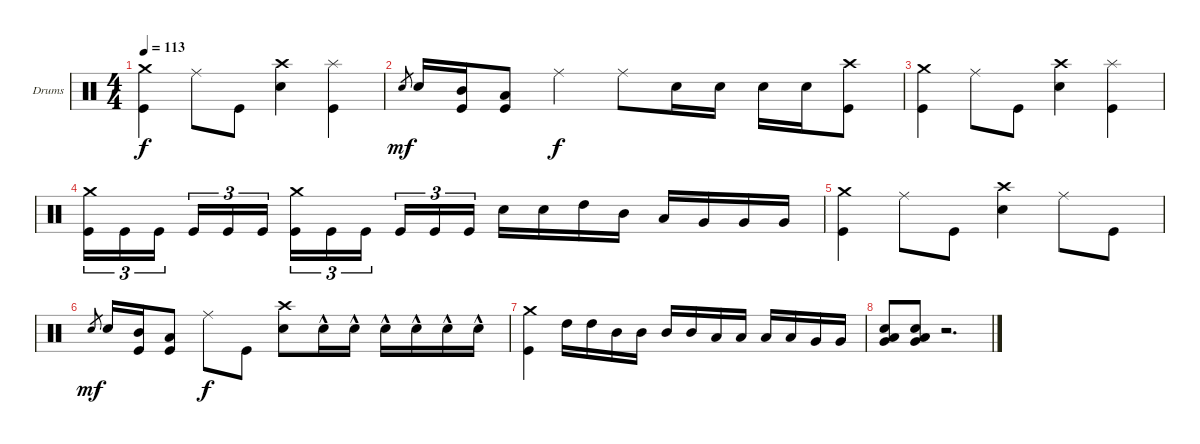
\defaultSystemsLayout 4
\bracketExtendMode groupsimilarinstruments
\firstSystemTrackNameOrientation horizontal
\otherSystemsTrackNameOrientation horizontal
\track ("Drumkit" "Drums") {instrument percussion}
\staff {score}
\articulation defaults
\ts (4 4)
\tempo 113
\clef neutral
\ks c
("Crash medium (hit)" "Kick (hit)").4{dy f} "Ride (middle)".8 "Kick (hit)".8 ("Crash high (hit)" "Snare (hit) 2").4 ("Splash (hit)" "Kick (hit)").4 |
"Snare (hit) 2".8{gr dy mf} "Snare (hit) 2".16 ("Kick (hit)" "Mid Tom (hit)").16 ("Kick (hit)" "Low Tom (hit)").8 "Ride (middle)".4{dy f} "Ride (middle)".8 "Snare (hit) 2".16 "Snare (hit) 2".16 "Snare (hit) 2".16 "Snare (hit) 2".16 ("Crash high (hit)" "Kick (hit)").8 |
("Crash medium (hit)" "Kick (hit)").4 "Ride (middle)".8 "Kick (hit)".8 ("Crash high (hit)" "Snare (hit) 2").4 ("Splash (hit)" "Kick (hit)").4 |
("Crash medium (hit)" "Kick (hit)").16{tu (3 2)} "Kick (hit)".16{tu (3 2)} "Kick (hit)".16{tu (3 2)} "Kick (hit)".16{tu (3 2)} "Kick (hit)".16{tu (3 2)} "Kick (hit)".16{tu (3 2)} ("Crash medium (hit)" "Kick (hit)").16{tu (3 2)} "Kick (hit)".16{tu (3 2)} "Kick (hit)".16{tu (3 2)} "Kick (hit)".16{tu (3 2)} "Kick (hit)".16{tu (3 2)} "Kick (hit)".16{tu (3 2)} "Snare (hit) 2".16 "Snare (hit) 2".16 "High Tom (hit)".16 "Mid Tom (hit)".16 "Low Tom (hit)".16 "Very Low Tom (hit)".16 "Very Low Tom (hit)".16 "Very Low Tom (hit)".16 |
("Crash medium (hit)" "Kick (hit)").4 "Ride (middle)".8 "Kick (hit)".8 ("Crash high (hit)" "Snare (hit) 2").4 "Ride (middle)".8 "Kick (hit)".8 |
"Snare (hit) 2".8{gr dy mf} "Snare (hit) 2".16 ("Kick (hit)" "Mid Tom (hit)").16 ("Kick (hit)" "Low Tom (hit)").8 "Ride (middle)".8{dy f} "Kick (hit)".8 ("Crash high (hit)" "Snare (hit) 2").8 "Snare (hit) 2"{hac}.16 "Snare (hit) 2"{hac}.16 "Snare (hit) 2"{hac}.16 "Snare (hit) 2"{hac}.16 "Snare (hit) 2"{hac}.16 "Snare (hit) 2"{hac}.16 |
("Crash medium (hit)" "Kick (hit)").4 "High Tom (hit)".16 "High Tom (hit)".16 "Mid Tom (hit)".16 "Mid Tom (hit)".16 "Mid Tom (hit)".16 "Mid Tom (hit)".16 "Low Tom (hit)".16 "Low Tom (hit)".16 "Low Tom (hit)".16 "Low Tom (hit)".16 "Very Low Tom (hit)".16 "Very Low Tom (hit)".16 |
("Low Tom (hit)" "Very Low Tom (hit)" "Snare (hit) 2").8 ("Low Tom (hit)" "Very Low Tom (hit)" "Snare (hit) 2").8 r.2{d}
